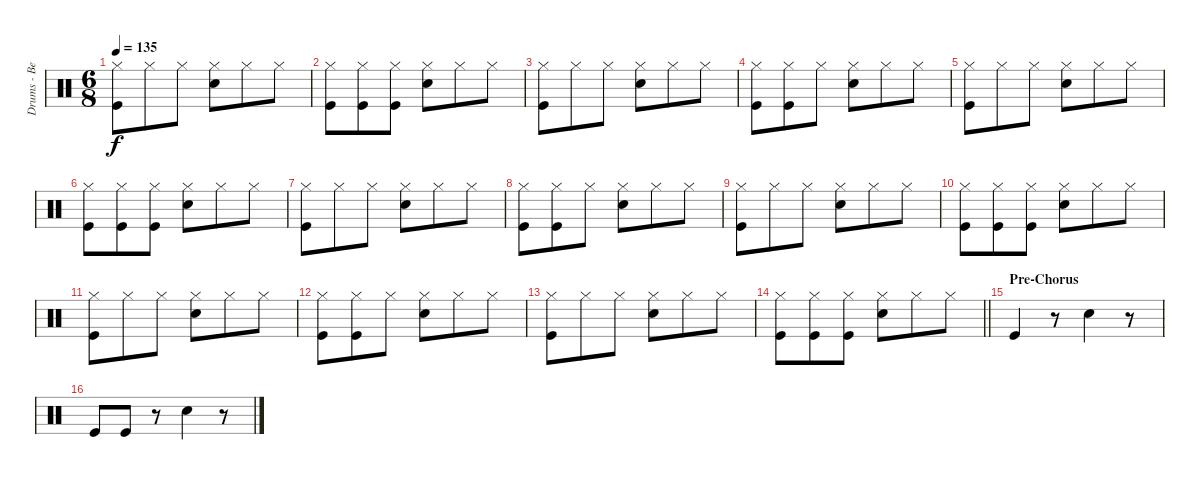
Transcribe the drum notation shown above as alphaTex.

\track ("Drums - Ben Johnston" "Drums - Be") {instrument percussion}
\staff {score}
\articulation defaults
\ts (6 8)
\tempo 135
\clef neutral
\ks c
("Hi-Hat (closed)" "Kick (hit)").8{dy f} "Hi-Hat (closed)".8 "Hi-Hat (closed)".8 ("Hi-Hat (closed)" "Snare (hit) 2").8 "Hi-Hat (closed)".8 "Hi-Hat (closed)".8 |
("Hi-Hat (closed)" "Kick (hit)").8 ("Hi-Hat (closed)" "Kick (hit)").8 ("Hi-Hat (closed)" "Kick (hit)").8 ("Hi-Hat (closed)" "Snare (hit) 2").8 "Hi-Hat (closed)".8 "Hi-Hat (closed)".8 |
("Hi-Hat (closed)" "Kick (hit)").8 "Hi-Hat (closed)".8 "Hi-Hat (closed)".8 ("Hi-Hat (closed)" "Snare (hit) 2").8 "Hi-Hat (closed)".8 "Hi-Hat (closed)".8 |
("Hi-Hat (closed)" "Kick (hit)").8 ("Hi-Hat (closed)" "Kick (hit)").8 "Hi-Hat (closed)".8 ("Hi-Hat (closed)" "Snare (hit) 2").8 "Hi-Hat (closed)".8 "Hi-Hat (closed)".8 |
("Hi-Hat (closed)" "Kick (hit)").8 "Hi-Hat (closed)".8 "Hi-Hat (closed)".8 ("Hi-Hat (closed)" "Snare (hit) 2").8 "Hi-Hat (closed)".8 "Hi-Hat (closed)".8 |
("Hi-Hat (closed)" "Kick (hit)").8 ("Hi-Hat (closed)" "Kick (hit)").8 ("Hi-Hat (closed)" "Kick (hit)").8 ("Hi-Hat (closed)" "Snare (hit) 2").8 "Hi-Hat (closed)".8 "Hi-Hat (closed)".8 |
("Hi-Hat (closed)" "Kick (hit)").8 "Hi-Hat (closed)".8 "Hi-Hat (closed)".8 ("Hi-Hat (closed)" "Snare (hit) 2").8 "Hi-Hat (closed)".8 "Hi-Hat (closed)".8 |
("Hi-Hat (closed)" "Kick (hit)").8 ("Hi-Hat (closed)" "Kick (hit)").8 "Hi-Hat (closed)".8 ("Hi-Hat (closed)" "Snare (hit) 2").8 "Hi-Hat (closed)".8 "Hi-Hat (closed)".8 |
("Hi-Hat (closed)" "Kick (hit)").8 "Hi-Hat (closed)".8 "Hi-Hat (closed)".8 ("Hi-Hat (closed)" "Snare (hit) 2").8 "Hi-Hat (closed)".8 "Hi-Hat (closed)".8 |
("Hi-Hat (closed)" "Kick (hit)").8 ("Hi-Hat (closed)" "Kick (hit)").8 ("Hi-Hat (closed)" "Kick (hit)").8 ("Hi-Hat (closed)" "Snare (hit) 2").8 "Hi-Hat (closed)".8 "Hi-Hat (closed)".8 |
("Hi-Hat (closed)" "Kick (hit)").8 "Hi-Hat (closed)".8 "Hi-Hat (closed)".8 ("Hi-Hat (closed)" "Snare (hit) 2").8 "Hi-Hat (closed)".8 "Hi-Hat (closed)".8 |
("Hi-Hat (closed)" "Kick (hit)").8 ("Hi-Hat (closed)" "Kick (hit)").8 "Hi-Hat (closed)".8 ("Hi-Hat (closed)" "Snare (hit) 2").8 "Hi-Hat (closed)".8 "Hi-Hat (closed)".8 |
("Hi-Hat (closed)" "Kick (hit)").8 "Hi-Hat (closed)".8 "Hi-Hat (closed)".8 ("Hi-Hat (closed)" "Snare (hit) 2").8 "Hi-Hat (closed)".8 "Hi-Hat (closed)".8 |
\barLineRight lightlight
("Hi-Hat (closed)" "Kick (hit)").8 ("Hi-Hat (closed)" "Kick (hit)").8 ("Hi-Hat (closed)" "Kick (hit)").8 ("Hi-Hat (closed)" "Snare (hit) 2").8 "Hi-Hat (closed)".8 "Hi-Hat (closed)".8 |
\section ("" "Pre-Chorus")
"Kick (hit)".4 r.8 "Snare (hit) 2".4 r.8 |
"Kick (hit)".8 "Kick (hit)".8 r.8 "Snare (hit) 2".4 r.8
